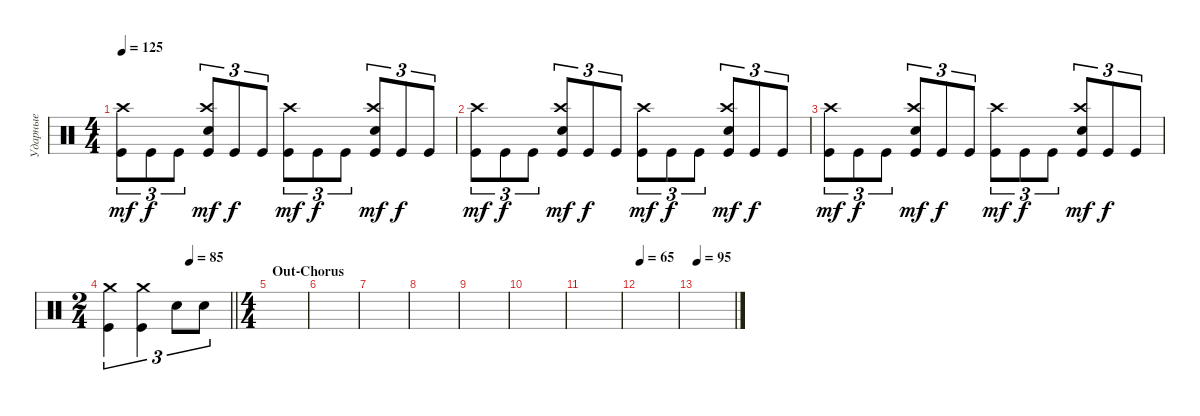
\track ("Ударные" "Ударные") {instrument percussion}
\staff {score}
\articulation defaults
\ts (4 4)
\tempo 125
\clef neutral
\ks c
("Kick (hit)" "Crash high (hit)").8{tu (3 2) dy mf} "Kick (hit)".8{tu (3 2) dy f} "Kick (hit)".8{tu (3 2)} ("Kick (hit)" "Snare (hit) 2" "Crash high (hit)").8{tu (3 2) dy mf} "Kick (hit)".8{tu (3 2) dy f} "Kick (hit)".8{tu (3 2)} ("Kick (hit)" "Crash high (hit)").8{tu (3 2) dy mf} "Kick (hit)".8{tu (3 2) dy f} "Kick (hit)".8{tu (3 2)} ("Kick (hit)" "Snare (hit) 2" "Crash high (hit)").8{tu (3 2) dy mf} "Kick (hit)".8{tu (3 2) dy f} "Kick (hit)".8{tu (3 2)} |
("Kick (hit)" "Crash high (hit)").8{tu (3 2) dy mf} "Kick (hit)".8{tu (3 2) dy f} "Kick (hit)".8{tu (3 2)} ("Kick (hit)" "Snare (hit) 2" "Crash high (hit)").8{tu (3 2) dy mf} "Kick (hit)".8{tu (3 2) dy f} "Kick (hit)".8{tu (3 2)} ("Kick (hit)" "Crash high (hit)").8{tu (3 2) dy mf} "Kick (hit)".8{tu (3 2) dy f} "Kick (hit)".8{tu (3 2)} ("Kick (hit)" "Snare (hit) 2" "Crash high (hit)").8{tu (3 2) dy mf} "Kick (hit)".8{tu (3 2) dy f} "Kick (hit)".8{tu (3 2)} |
("Kick (hit)" "Crash high (hit)").8{tu (3 2) dy mf} "Kick (hit)".8{tu (3 2) dy f} "Kick (hit)".8{tu (3 2)} ("Kick (hit)" "Snare (hit) 2" "Crash high (hit)").8{tu (3 2) dy mf} "Kick (hit)".8{tu (3 2) dy f} "Kick (hit)".8{tu (3 2)} ("Kick (hit)" "Crash high (hit)").8{tu (3 2) dy mf} "Kick (hit)".8{tu (3 2) dy f} "Kick (hit)".8{tu (3 2)} ("Kick (hit)" "Snare (hit) 2" "Crash high (hit)").8{tu (3 2) dy mf} "Kick (hit)".8{tu (3 2) dy f} "Kick (hit)".8{tu (3 2)} |
\ts (2 4)
\tempo (85 0.6666666666666666)
\barLineRight lightlight
("Kick (hit)" "Crash medium (hit)").4{tu (3 2)} ("Kick (hit)" "Crash medium (hit)").4{tu (3 2)} "Snare (hit) 2".8{tu (3 2)} "Snare (hit) 2".8{tu (3 2)} |
\ts (4 4)
\section ("" "Out-Chorus")
|
|
|
|
|
|
|
\tempo 65
|
\tempo 95
